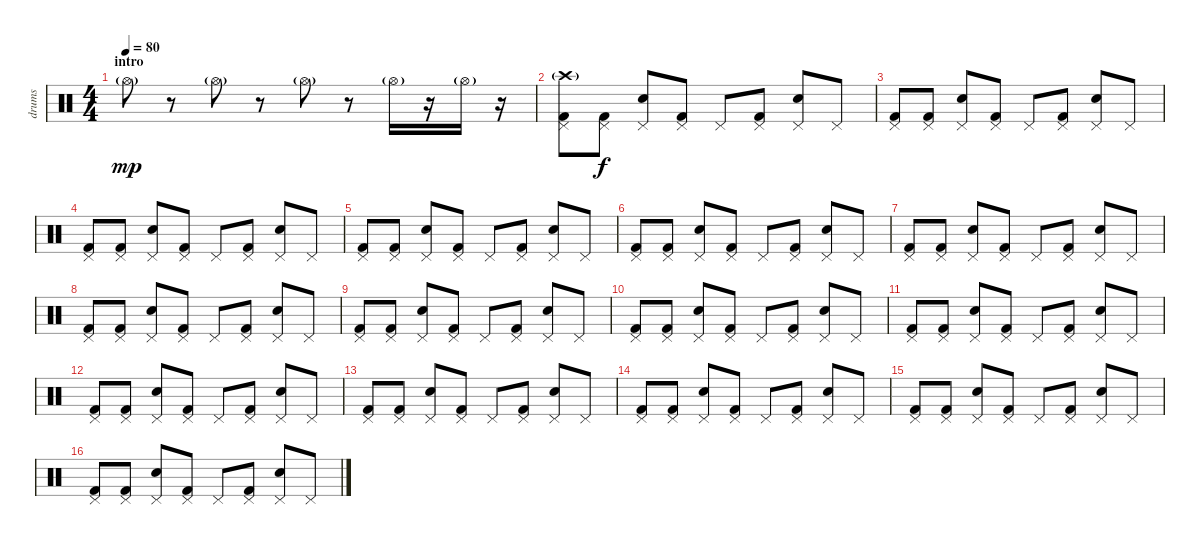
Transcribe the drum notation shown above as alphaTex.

\track ("drums" "drums") {instrument percussion}
\staff {score}
\articulation defaults
\ts (4 4)
\section ("" "intro")
\tempo 80
\clef neutral
\ks c "Hi-Hat (open)"{g}.8{dy mp}
r.8 "Hi-Hat (open)"{g}.8 r.8 "Hi-Hat (open)"{g}.8 r.8 "Hi-Hat (open)"{g}.16 r.16 "Hi-Hat (open)"{g}.16 r.16 |
("Kick (hit) 2" "Pedal Hi-Hat (hit)" "Crash high (hit)"{g}).8 ("Kick (hit) 2" "Pedal Hi-Hat (hit)").8{dy f} ("Electric Snare (hit)" "Pedal Hi-Hat (hit)").8 ("Kick (hit) 2" "Pedal Hi-Hat (hit)").8 "Pedal Hi-Hat (hit)".8 ("Kick (hit) 2" "Pedal Hi-Hat (hit)").8 ("Electric Snare (hit)" "Pedal Hi-Hat (hit)").8 "Pedal Hi-Hat (hit)".8 |
("Kick (hit) 2" "Pedal Hi-Hat (hit)").8 ("Kick (hit) 2" "Pedal Hi-Hat (hit)").8 ("Electric Snare (hit)" "Pedal Hi-Hat (hit)").8 ("Kick (hit) 2" "Pedal Hi-Hat (hit)").8 "Pedal Hi-Hat (hit)".8 ("Kick (hit) 2" "Pedal Hi-Hat (hit)").8 ("Electric Snare (hit)" "Pedal Hi-Hat (hit)").8 "Pedal Hi-Hat (hit)".8 |
("Kick (hit) 2" "Pedal Hi-Hat (hit)").8 ("Kick (hit) 2" "Pedal Hi-Hat (hit)").8 ("Electric Snare (hit)" "Pedal Hi-Hat (hit)").8 ("Kick (hit) 2" "Pedal Hi-Hat (hit)").8 "Pedal Hi-Hat (hit)".8 ("Kick (hit) 2" "Pedal Hi-Hat (hit)").8 ("Electric Snare (hit)" "Pedal Hi-Hat (hit)").8 "Pedal Hi-Hat (hit)".8 |
("Kick (hit) 2" "Pedal Hi-Hat (hit)").8 ("Kick (hit) 2" "Pedal Hi-Hat (hit)").8 ("Electric Snare (hit)" "Pedal Hi-Hat (hit)").8 ("Kick (hit) 2" "Pedal Hi-Hat (hit)").8 "Pedal Hi-Hat (hit)".8 ("Kick (hit) 2" "Pedal Hi-Hat (hit)").8 ("Electric Snare (hit)" "Pedal Hi-Hat (hit)").8 "Pedal Hi-Hat (hit)".8 |
("Kick (hit) 2" "Pedal Hi-Hat (hit)").8 ("Kick (hit) 2" "Pedal Hi-Hat (hit)").8 ("Electric Snare (hit)" "Pedal Hi-Hat (hit)").8 ("Kick (hit) 2" "Pedal Hi-Hat (hit)").8 "Pedal Hi-Hat (hit)".8 ("Kick (hit) 2" "Pedal Hi-Hat (hit)").8 ("Electric Snare (hit)" "Pedal Hi-Hat (hit)").8 "Pedal Hi-Hat (hit)".8 |
("Kick (hit) 2" "Pedal Hi-Hat (hit)").8 ("Kick (hit) 2" "Pedal Hi-Hat (hit)").8 ("Electric Snare (hit)" "Pedal Hi-Hat (hit)").8 ("Kick (hit) 2" "Pedal Hi-Hat (hit)").8 "Pedal Hi-Hat (hit)".8 ("Kick (hit) 2" "Pedal Hi-Hat (hit)").8 ("Electric Snare (hit)" "Pedal Hi-Hat (hit)").8 "Pedal Hi-Hat (hit)".8 |
("Kick (hit) 2" "Pedal Hi-Hat (hit)").8 ("Kick (hit) 2" "Pedal Hi-Hat (hit)").8 ("Electric Snare (hit)" "Pedal Hi-Hat (hit)").8 ("Kick (hit) 2" "Pedal Hi-Hat (hit)").8 "Pedal Hi-Hat (hit)".8 ("Kick (hit) 2" "Pedal Hi-Hat (hit)").8 ("Electric Snare (hit)" "Pedal Hi-Hat (hit)").8 "Pedal Hi-Hat (hit)".8 |
("Kick (hit) 2" "Pedal Hi-Hat (hit)").8 ("Kick (hit) 2" "Pedal Hi-Hat (hit)").8 ("Electric Snare (hit)" "Pedal Hi-Hat (hit)").8 ("Kick (hit) 2" "Pedal Hi-Hat (hit)").8 "Pedal Hi-Hat (hit)".8 ("Kick (hit) 2" "Pedal Hi-Hat (hit)").8 ("Electric Snare (hit)" "Pedal Hi-Hat (hit)").8 "Pedal Hi-Hat (hit)".8 |
("Kick (hit) 2" "Pedal Hi-Hat (hit)").8 ("Kick (hit) 2" "Pedal Hi-Hat (hit)").8 ("Electric Snare (hit)" "Pedal Hi-Hat (hit)").8 ("Kick (hit) 2" "Pedal Hi-Hat (hit)").8 "Pedal Hi-Hat (hit)".8 ("Kick (hit) 2" "Pedal Hi-Hat (hit)").8 ("Electric Snare (hit)" "Pedal Hi-Hat (hit)").8 "Pedal Hi-Hat (hit)".8 |
("Kick (hit) 2" "Pedal Hi-Hat (hit)").8 ("Kick (hit) 2" "Pedal Hi-Hat (hit)").8 ("Electric Snare (hit)" "Pedal Hi-Hat (hit)").8 ("Kick (hit) 2" "Pedal Hi-Hat (hit)").8 "Pedal Hi-Hat (hit)".8 ("Kick (hit) 2" "Pedal Hi-Hat (hit)").8 ("Electric Snare (hit)" "Pedal Hi-Hat (hit)").8 "Pedal Hi-Hat (hit)".8 |
("Kick (hit) 2" "Pedal Hi-Hat (hit)").8 ("Kick (hit) 2" "Pedal Hi-Hat (hit)").8 ("Electric Snare (hit)" "Pedal Hi-Hat (hit)").8 ("Kick (hit) 2" "Pedal Hi-Hat (hit)").8 "Pedal Hi-Hat (hit)".8 ("Kick (hit) 2" "Pedal Hi-Hat (hit)").8 ("Electric Snare (hit)" "Pedal Hi-Hat (hit)").8 "Pedal Hi-Hat (hit)".8 |
("Kick (hit) 2" "Pedal Hi-Hat (hit)").8 ("Kick (hit) 2" "Pedal Hi-Hat (hit)").8 ("Electric Snare (hit)" "Pedal Hi-Hat (hit)").8 ("Kick (hit) 2" "Pedal Hi-Hat (hit)").8 "Pedal Hi-Hat (hit)".8 ("Kick (hit) 2" "Pedal Hi-Hat (hit)").8 ("Electric Snare (hit)" "Pedal Hi-Hat (hit)").8 "Pedal Hi-Hat (hit)".8 |
("Kick (hit) 2" "Pedal Hi-Hat (hit)").8 ("Kick (hit) 2" "Pedal Hi-Hat (hit)").8 ("Electric Snare (hit)" "Pedal Hi-Hat (hit)").8 ("Kick (hit) 2" "Pedal Hi-Hat (hit)").8 "Pedal Hi-Hat (hit)".8 ("Kick (hit) 2" "Pedal Hi-Hat (hit)").8 ("Electric Snare (hit)" "Pedal Hi-Hat (hit)").8 "Pedal Hi-Hat (hit)".8 |
("Kick (hit) 2" "Pedal Hi-Hat (hit)").8 ("Kick (hit) 2" "Pedal Hi-Hat (hit)").8 ("Electric Snare (hit)" "Pedal Hi-Hat (hit)").8 ("Kick (hit) 2" "Pedal Hi-Hat (hit)").8 "Pedal Hi-Hat (hit)".8 ("Kick (hit) 2" "Pedal Hi-Hat (hit)").8 ("Electric Snare (hit)" "Pedal Hi-Hat (hit)").8 "Pedal Hi-Hat (hit)".8 |
("Kick (hit) 2" "Pedal Hi-Hat (hit)").8 ("Kick (hit) 2" "Pedal Hi-Hat (hit)").8 ("Electric Snare (hit)" "Pedal Hi-Hat (hit)").8 ("Kick (hit) 2" "Pedal Hi-Hat (hit)").8 "Pedal Hi-Hat (hit)".8 ("Kick (hit) 2" "Pedal Hi-Hat (hit)").8 ("Electric Snare (hit)" "Pedal Hi-Hat (hit)").8 "Pedal Hi-Hat (hit)".8
